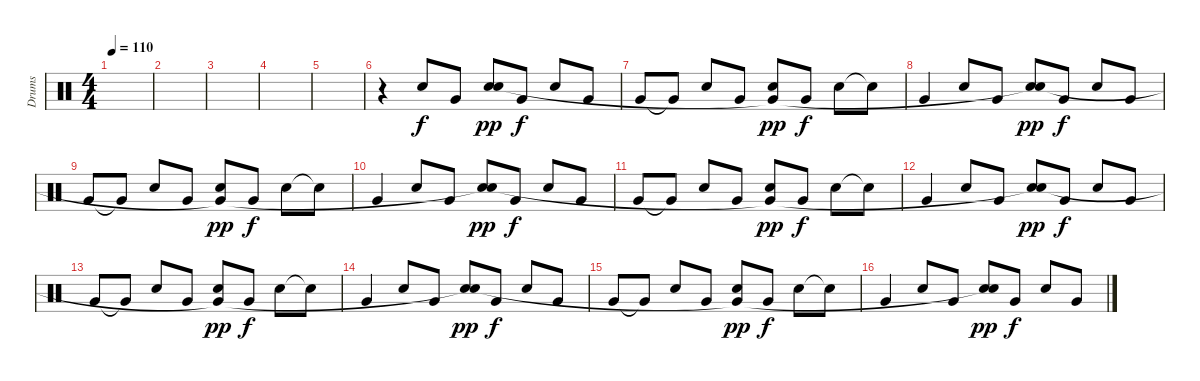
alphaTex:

\track ("Drums" "Drums") {instrument percussion}
\staff {score}
\articulation defaults
\ts (4 4)
\tempo 110
\clef neutral
\ks c
|
|
|
|
|
r.4 "Electric Snare (hit)".8 "Very Low Tom (hit)".8 ("Electric Snare (hit)" "Snare (hit)").8{dy pp} "Very Low Tom (hit)".8{dy f} "Electric Snare (hit)".8 "Very Low Tom (hit)".8 |
"Very Low Tom (hit)".8 "Very Low Tom (hit)"{t}.8 "Electric Snare (hit)".8 "Very Low Tom (hit)".8 ("Electric Snare (hit)" "Very Low Tom (hit)"{t}).8{dy pp} "Very Low Tom (hit)".8{dy f} "Electric Snare (hit)".8 "Snare (hit)"{t}.8 |
"Very Low Tom (hit)".4 "Electric Snare (hit)".8 "Very Low Tom (hit)".8 ("Electric Snare (hit)" "Snare (hit)"{t}).8{dy pp} "Very Low Tom (hit)".8{dy f} "Electric Snare (hit)".8 "Very Low Tom (hit)".8 |
"Very Low Tom (hit)".8 "Very Low Tom (hit)"{t}.8 "Electric Snare (hit)".8 "Very Low Tom (hit)".8 ("Electric Snare (hit)" "Very Low Tom (hit)"{t}).8{dy pp} "Very Low Tom (hit)".8{dy f} "Electric Snare (hit)".8 "Snare (hit)"{t}.8 |
"Very Low Tom (hit)".4 "Electric Snare (hit)".8 "Very Low Tom (hit)".8 ("Electric Snare (hit)" "Snare (hit)"{t}).8{dy pp} "Very Low Tom (hit)".8{dy f} "Electric Snare (hit)".8 "Very Low Tom (hit)".8 |
"Very Low Tom (hit)".8 "Very Low Tom (hit)"{t}.8 "Electric Snare (hit)".8 "Very Low Tom (hit)".8 ("Electric Snare (hit)" "Very Low Tom (hit)"{t}).8{dy pp} "Very Low Tom (hit)".8{dy f} "Electric Snare (hit)".8 "Snare (hit)"{t}.8 |
"Very Low Tom (hit)".4 "Electric Snare (hit)".8 "Very Low Tom (hit)".8 ("Electric Snare (hit)" "Snare (hit)"{t}).8{dy pp} "Very Low Tom (hit)".8{dy f} "Electric Snare (hit)".8 "Very Low Tom (hit)".8 |
"Very Low Tom (hit)".8 "Very Low Tom (hit)"{t}.8 "Electric Snare (hit)".8 "Very Low Tom (hit)".8 ("Electric Snare (hit)" "Very Low Tom (hit)"{t}).8{dy pp} "Very Low Tom (hit)".8{dy f} "Electric Snare (hit)".8 "Snare (hit)"{t}.8 |
"Very Low Tom (hit)".4 "Electric Snare (hit)".8 "Very Low Tom (hit)".8 ("Electric Snare (hit)" "Snare (hit)"{t}).8{dy pp} "Very Low Tom (hit)".8{dy f} "Electric Snare (hit)".8 "Very Low Tom (hit)".8 |
"Very Low Tom (hit)".8 "Very Low Tom (hit)"{t}.8 "Electric Snare (hit)".8 "Very Low Tom (hit)".8 ("Electric Snare (hit)" "Very Low Tom (hit)"{t}).8{dy pp} "Very Low Tom (hit)".8{dy f} "Electric Snare (hit)".8 "Snare (hit)"{t}.8 |
"Very Low Tom (hit)".4 "Electric Snare (hit)".8 "Very Low Tom (hit)".8 ("Electric Snare (hit)" "Snare (hit)"{t}).8{dy pp} "Very Low Tom (hit)".8{dy f} "Electric Snare (hit)".8 "Very Low Tom (hit)".8
